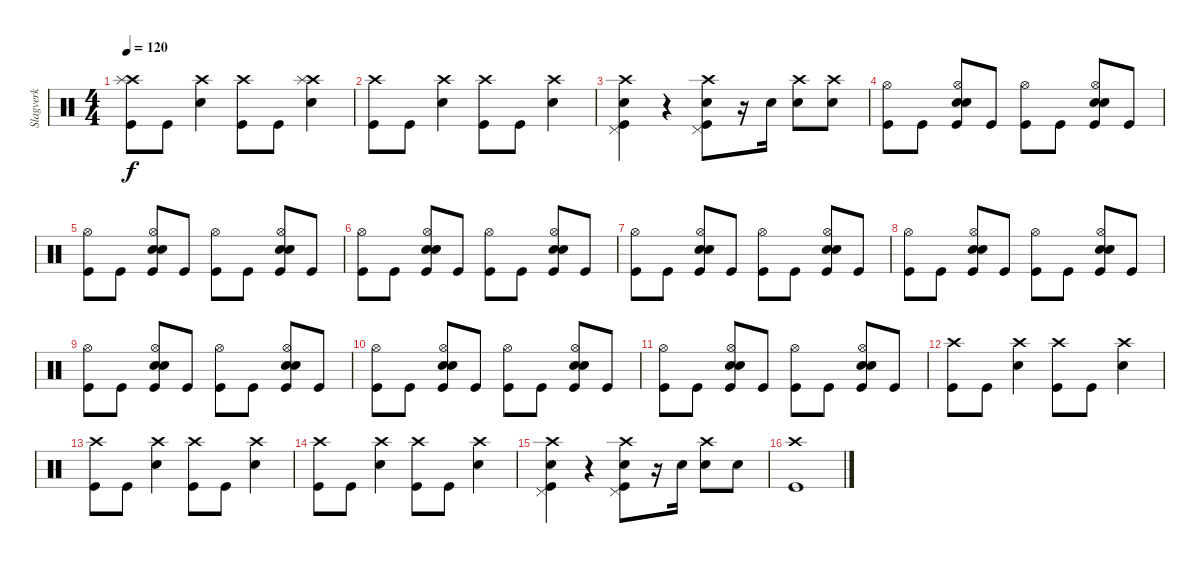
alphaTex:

\track ("Slagverk" "Slagverk") {instrument percussion}
\staff {score}
\articulation defaults
\ts (4 4)
\tempo 120
\clef neutral
\ks c
("Crash high (hit)" "Splash (hit)" "Kick (hit)").8{dy f} "Kick (hit)".8 ("Crash high (hit)" "Snare (hit) 2").4 ("Crash high (hit)" "Kick (hit)").8 "Kick (hit)".8 ("Crash high (hit)" "Splash (hit)" "Snare (hit) 2").4 |
("Crash high (hit)" "Kick (hit)").8 "Kick (hit)".8 ("Crash high (hit)" "Snare (hit) 2").4 ("Crash high (hit)" "Kick (hit)").8 "Kick (hit)".8 ("Crash high (hit)" "Snare (hit) 2").4 |
("Crash high (hit)" "Pedal Hi-Hat (hit)" "Kick (hit)" "Snare (hit) 2").4 r.4 ("Crash high (hit)" "Pedal Hi-Hat (hit)" "Kick (hit)" "Snare (hit) 2").8 r.16 "Snare (hit) 2".16 ("Crash high (hit)" "Snare (hit) 2").8 ("Crash high (hit)" "Snare (hit) 2").8 |
("Hi-Hat (open)" "Kick (hit)").8 "Kick (hit)".8 ("Hi-Hat (open)" "Electric Snare (hit)" "Snare (hit) 2" "Kick (hit)").8 "Kick (hit)".8 ("Hi-Hat (open)" "Kick (hit)").8 "Kick (hit)".8 ("Hi-Hat (open)" "Electric Snare (hit)" "Snare (hit) 2" "Kick (hit)").8 "Kick (hit)".8 |
("Hi-Hat (open)" "Kick (hit)").8 "Kick (hit)".8 ("Hi-Hat (open)" "Electric Snare (hit)" "Snare (hit) 2" "Kick (hit)").8 "Kick (hit)".8 ("Hi-Hat (open)" "Kick (hit)").8 "Kick (hit)".8 ("Hi-Hat (open)" "Electric Snare (hit)" "Snare (hit) 2" "Kick (hit)").8 "Kick (hit)".8 |
("Hi-Hat (open)" "Kick (hit)").8 "Kick (hit)".8 ("Hi-Hat (open)" "Electric Snare (hit)" "Snare (hit) 2" "Kick (hit)").8 "Kick (hit)".8 ("Hi-Hat (open)" "Kick (hit)").8 "Kick (hit)".8 ("Hi-Hat (open)" "Electric Snare (hit)" "Snare (hit) 2" "Kick (hit)").8 "Kick (hit)".8 |
("Hi-Hat (open)" "Kick (hit)").8 "Kick (hit)".8 ("Hi-Hat (open)" "Electric Snare (hit)" "Snare (hit) 2" "Kick (hit)").8 "Kick (hit)".8 ("Hi-Hat (open)" "Kick (hit)").8 "Kick (hit)".8 ("Hi-Hat (open)" "Electric Snare (hit)" "Snare (hit) 2" "Kick (hit)").8 "Kick (hit)".8 |
("Hi-Hat (open)" "Kick (hit)").8 "Kick (hit)".8 ("Hi-Hat (open)" "Electric Snare (hit)" "Snare (hit) 2" "Kick (hit)").8 "Kick (hit)".8 ("Hi-Hat (open)" "Kick (hit)").8 "Kick (hit)".8 ("Hi-Hat (open)" "Electric Snare (hit)" "Snare (hit) 2" "Kick (hit)").8 "Kick (hit)".8 |
("Hi-Hat (open)" "Kick (hit)").8 "Kick (hit)".8 ("Hi-Hat (open)" "Electric Snare (hit)" "Snare (hit) 2" "Kick (hit)").8 "Kick (hit)".8 ("Hi-Hat (open)" "Kick (hit)").8 "Kick (hit)".8 ("Hi-Hat (open)" "Electric Snare (hit)" "Snare (hit) 2" "Kick (hit)").8 "Kick (hit)".8 |
("Hi-Hat (open)" "Kick (hit)").8 "Kick (hit)".8 ("Hi-Hat (open)" "Electric Snare (hit)" "Snare (hit) 2" "Kick (hit)").8 "Kick (hit)".8 ("Hi-Hat (open)" "Kick (hit)").8 "Kick (hit)".8 ("Hi-Hat (open)" "Electric Snare (hit)" "Snare (hit) 2" "Kick (hit)").8 "Kick (hit)".8 |
("Hi-Hat (open)" "Kick (hit)").8 "Kick (hit)".8 ("Hi-Hat (open)" "Electric Snare (hit)" "Snare (hit) 2" "Kick (hit)").8 "Kick (hit)".8 ("Hi-Hat (open)" "Kick (hit)").8 "Kick (hit)".8 ("Hi-Hat (open)" "Electric Snare (hit)" "Snare (hit) 2" "Kick (hit)").8 "Kick (hit)".8 |
("Crash high (hit)" "Kick (hit)").8 "Kick (hit)".8 ("Crash high (hit)" "Snare (hit) 2").4 ("Crash high (hit)" "Kick (hit)").8 "Kick (hit)".8 ("Crash high (hit)" "Snare (hit) 2").4 |
("Crash high (hit)" "Kick (hit)").8 "Kick (hit)".8 ("Crash high (hit)" "Snare (hit) 2").4 ("Crash high (hit)" "Kick (hit)").8 "Kick (hit)".8 ("Crash high (hit)" "Snare (hit) 2").4 |
("Crash high (hit)" "Kick (hit)").8 "Kick (hit)".8 ("Crash high (hit)" "Snare (hit) 2").4 ("Crash high (hit)" "Kick (hit)").8 "Kick (hit)".8 ("Crash high (hit)" "Snare (hit) 2").4 |
("Crash high (hit)" "Pedal Hi-Hat (hit)" "Kick (hit)" "Snare (hit) 2").4 r.4 ("Crash high (hit)" "Pedal Hi-Hat (hit)" "Kick (hit)" "Snare (hit) 2").8 r.16 "Snare (hit) 2".16 ("Crash high (hit)" "Snare (hit) 2").8 "Snare (hit) 2".8 |
("Crash high (hit)" "Kick (hit)").1
